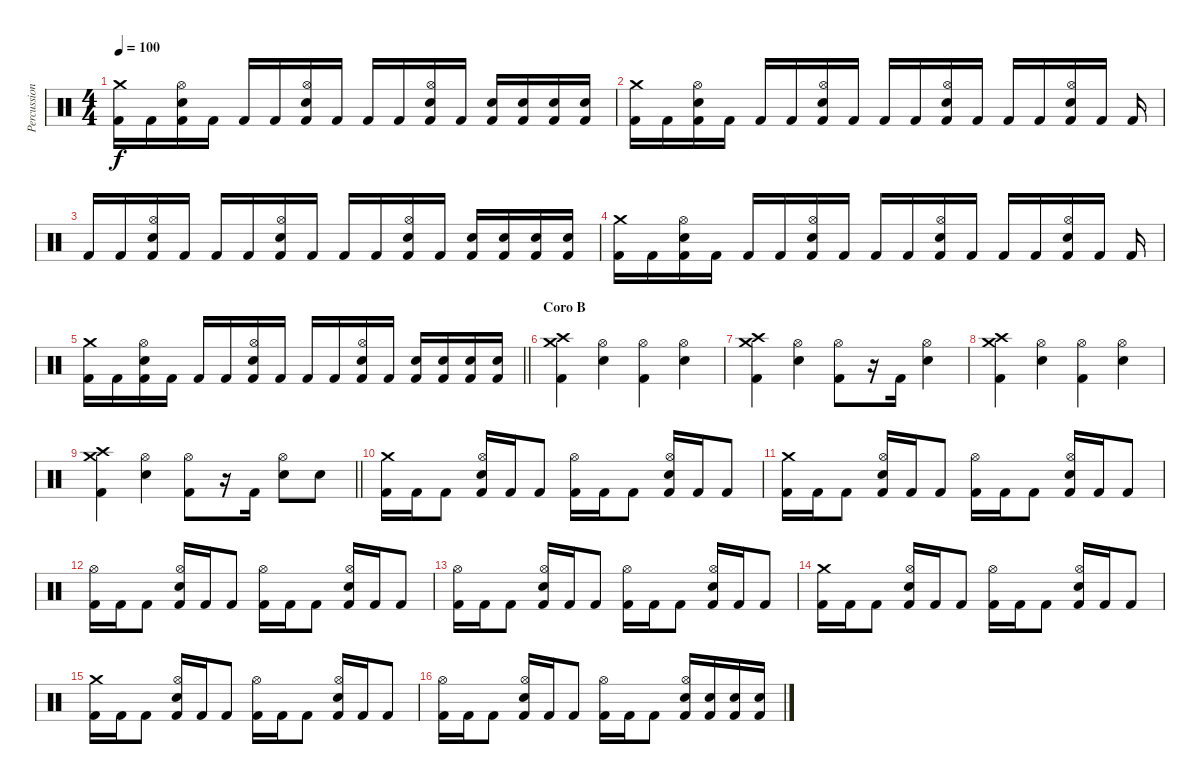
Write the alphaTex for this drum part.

\track ("Percussion" "Percussion") {instrument percussion}
\staff {score}
\articulation defaults
\ts (4 4)
\tempo 100
\clef neutral
\ks c
("Crash medium (hit)" "Kick (hit) 2").16{dy f} "Kick (hit) 2".16 ("Hi-Hat (open)" "Electric Snare (hit)" "Kick (hit) 2").16 "Kick (hit) 2".16 "Kick (hit) 2".16 "Kick (hit) 2".16 ("Hi-Hat (open)" "Electric Snare (hit)" "Kick (hit) 2").16 "Kick (hit) 2".16 "Kick (hit) 2".16 "Kick (hit) 2".16 ("Hi-Hat (open)" "Electric Snare (hit)" "Kick (hit) 2").16 "Kick (hit) 2".16 ("Electric Snare (hit)" "Kick (hit) 2").16 ("Electric Snare (hit)" "Kick (hit) 2").16 ("Electric Snare (hit)" "Kick (hit) 2").16 ("Electric Snare (hit)" "Kick (hit) 2").16 |
("Crash medium (hit)" "Kick (hit) 2").16 "Kick (hit) 2".16 ("Hi-Hat (open)" "Electric Snare (hit)" "Kick (hit) 2").16 "Kick (hit) 2".16 "Kick (hit) 2".16 "Kick (hit) 2".16 ("Hi-Hat (open)" "Electric Snare (hit)" "Kick (hit) 2").16 "Kick (hit) 2".16 "Kick (hit) 2".16 "Kick (hit) 2".16 ("Hi-Hat (open)" "Electric Snare (hit)" "Kick (hit) 2").16 "Kick (hit) 2".16 "Kick (hit) 2".16 "Kick (hit) 2".16 ("Hi-Hat (open)" "Electric Snare (hit)" "Kick (hit) 2").16 "Kick (hit) 2".16 "Kick (hit) 2".16 |
"Kick (hit) 2".16 "Kick (hit) 2".16 ("Hi-Hat (open)" "Electric Snare (hit)" "Kick (hit) 2").16 "Kick (hit) 2".16 "Kick (hit) 2".16 "Kick (hit) 2".16 ("Hi-Hat (open)" "Electric Snare (hit)" "Kick (hit) 2").16 "Kick (hit) 2".16 "Kick (hit) 2".16 "Kick (hit) 2".16 ("Hi-Hat (open)" "Electric Snare (hit)" "Kick (hit) 2").16 "Kick (hit) 2".16 ("Electric Snare (hit)" "Kick (hit) 2").16 ("Electric Snare (hit)" "Kick (hit) 2").16 ("Electric Snare (hit)" "Kick (hit) 2").16 ("Electric Snare (hit)" "Kick (hit) 2").16 |
("Crash medium (hit)" "Kick (hit) 2").16 "Kick (hit) 2".16 ("Hi-Hat (open)" "Electric Snare (hit)" "Kick (hit) 2").16 "Kick (hit) 2".16 "Kick (hit) 2".16 "Kick (hit) 2".16 ("Hi-Hat (open)" "Electric Snare (hit)" "Kick (hit) 2").16 "Kick (hit) 2".16 "Kick (hit) 2".16 "Kick (hit) 2".16 ("Hi-Hat (open)" "Electric Snare (hit)" "Kick (hit) 2").16 "Kick (hit) 2".16 "Kick (hit) 2".16 "Kick (hit) 2".16 ("Hi-Hat (open)" "Electric Snare (hit)" "Kick (hit) 2").16 "Kick (hit) 2".16 "Kick (hit) 2".16 |
\barLineRight lightlight
("Crash medium (hit)" "Kick (hit) 2").16 "Kick (hit) 2".16 ("Hi-Hat (open)" "Electric Snare (hit)" "Kick (hit) 2").16 "Kick (hit) 2".16 "Kick (hit) 2".16 "Kick (hit) 2".16 ("Hi-Hat (open)" "Electric Snare (hit)" "Kick (hit) 2").16 "Kick (hit) 2".16 "Kick (hit) 2".16 "Kick (hit) 2".16 ("Hi-Hat (open)" "Electric Snare (hit)" "Kick (hit) 2").16 "Kick (hit) 2".16 ("Electric Snare (hit)" "Kick (hit) 2").16 ("Electric Snare (hit)" "Kick (hit) 2").16 ("Electric Snare (hit)" "Kick (hit) 2").16 ("Electric Snare (hit)" "Kick (hit) 2").16 |
\section ("" "Coro B")
("Crash medium (hit)" "Crash high (hit)" "Kick (hit) 2").4 ("Hi-Hat (open)" "Electric Snare (hit)").4 ("Hi-Hat (open)" "Kick (hit) 2").4 ("Hi-Hat (open)" "Electric Snare (hit)").4 |
("Crash medium (hit)" "Crash high (hit)" "Kick (hit) 2").4 ("Hi-Hat (open)" "Electric Snare (hit)").4 ("Hi-Hat (open)" "Kick (hit) 2").8 r.16 "Kick (hit) 2".16 ("Hi-Hat (open)" "Electric Snare (hit)").4 |
("Crash medium (hit)" "Crash high (hit)" "Kick (hit) 2").4 ("Hi-Hat (open)" "Electric Snare (hit)").4 ("Hi-Hat (open)" "Kick (hit) 2").4 ("Hi-Hat (open)" "Electric Snare (hit)").4 |
\barLineRight lightlight
("Crash medium (hit)" "Crash high (hit)" "Kick (hit) 2").4 ("Hi-Hat (open)" "Electric Snare (hit)").4 ("Hi-Hat (open)" "Kick (hit) 2").8 r.16 "Kick (hit) 2".16 ("Hi-Hat (open)" "Electric Snare (hit)").8 "Electric Snare (hit)".8 |
\section ("" "")
("Crash medium (hit)" "Kick (hit) 2").16 "Kick (hit) 2".16 "Kick (hit) 2".8 ("Hi-Hat (open)" "Electric Snare (hit)" "Kick (hit) 2").16 "Kick (hit) 2".16 "Kick (hit) 2".8 ("Hi-Hat (open)" "Kick (hit) 2").16 "Kick (hit) 2".16 "Kick (hit) 2".8 ("Hi-Hat (open)" "Electric Snare (hit)" "Kick (hit) 2").16 "Kick (hit) 2".16 "Kick (hit) 2".8 |
("Crash medium (hit)" "Kick (hit) 2").16 "Kick (hit) 2".16 "Kick (hit) 2".8 ("Hi-Hat (open)" "Electric Snare (hit)" "Kick (hit) 2").16 "Kick (hit) 2".16 "Kick (hit) 2".8 ("Hi-Hat (open)" "Kick (hit) 2").16 "Kick (hit) 2".16 "Kick (hit) 2".8 ("Hi-Hat (open)" "Electric Snare (hit)" "Kick (hit) 2").16 "Kick (hit) 2".16 "Kick (hit) 2".8 |
("Hi-Hat (open)" "Kick (hit) 2").16 "Kick (hit) 2".16 "Kick (hit) 2".8 ("Hi-Hat (open)" "Electric Snare (hit)" "Kick (hit) 2").16 "Kick (hit) 2".16 "Kick (hit) 2".8 ("Hi-Hat (open)" "Kick (hit) 2").16 "Kick (hit) 2".16 "Kick (hit) 2".8 ("Hi-Hat (open)" "Electric Snare (hit)" "Kick (hit) 2").16 "Kick (hit) 2".16 "Kick (hit) 2".8 |
("Hi-Hat (open)" "Kick (hit) 2").16 "Kick (hit) 2".16 "Kick (hit) 2".8 ("Hi-Hat (open)" "Electric Snare (hit)" "Kick (hit) 2").16 "Kick (hit) 2".16 "Kick (hit) 2".8 ("Hi-Hat (open)" "Kick (hit) 2").16 "Kick (hit) 2".16 "Kick (hit) 2".8 ("Hi-Hat (open)" "Electric Snare (hit)" "Kick (hit) 2").16 "Kick (hit) 2".16 "Kick (hit) 2".8 |
("Crash medium (hit)" "Kick (hit) 2").16 "Kick (hit) 2".16 "Kick (hit) 2".8 ("Hi-Hat (open)" "Electric Snare (hit)" "Kick (hit) 2").16 "Kick (hit) 2".16 "Kick (hit) 2".8 ("Hi-Hat (open)" "Kick (hit) 2").16 "Kick (hit) 2".16 "Kick (hit) 2".8 ("Hi-Hat (open)" "Electric Snare (hit)" "Kick (hit) 2").16 "Kick (hit) 2".16 "Kick (hit) 2".8 |
("Crash medium (hit)" "Kick (hit) 2").16 "Kick (hit) 2".16 "Kick (hit) 2".8 ("Hi-Hat (open)" "Electric Snare (hit)" "Kick (hit) 2").16 "Kick (hit) 2".16 "Kick (hit) 2".8 ("Hi-Hat (open)" "Kick (hit) 2").16 "Kick (hit) 2".16 "Kick (hit) 2".8 ("Hi-Hat (open)" "Electric Snare (hit)" "Kick (hit) 2").16 "Kick (hit) 2".16 "Kick (hit) 2".8 |
("Hi-Hat (open)" "Kick (hit) 2").16 "Kick (hit) 2".16 "Kick (hit) 2".8 ("Hi-Hat (open)" "Electric Snare (hit)" "Kick (hit) 2").16 "Kick (hit) 2".16 "Kick (hit) 2".8 ("Hi-Hat (open)" "Kick (hit) 2").16 "Kick (hit) 2".16 "Kick (hit) 2".8 ("Hi-Hat (open)" "Electric Snare (hit)" "Kick (hit) 2").16 ("Electric Snare (hit)" "Kick (hit) 2").16 ("Electric Snare (hit)" "Kick (hit) 2").16 ("Electric Snare (hit)" "Kick (hit) 2").16
